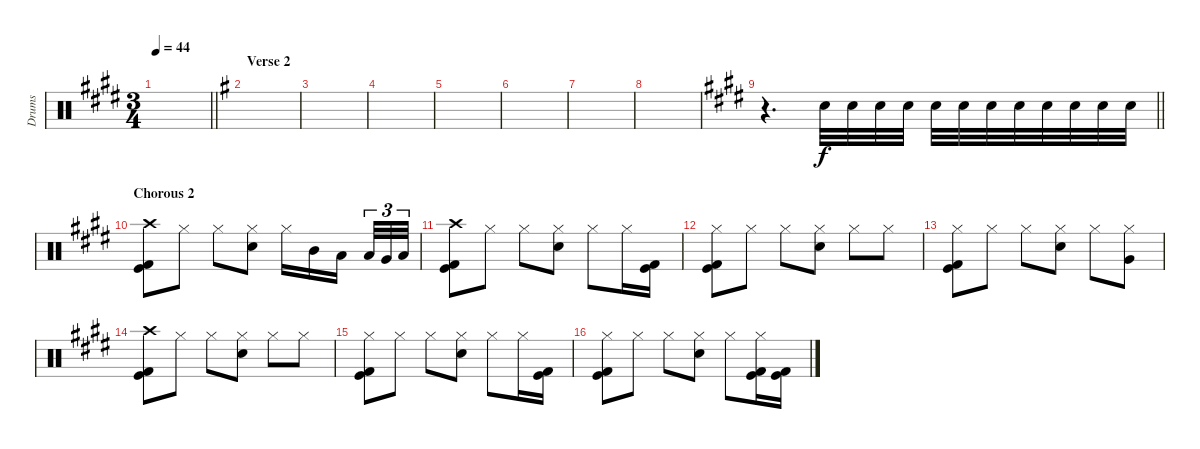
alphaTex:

\track ("Drums" "Drums") {instrument percussion}
\staff {score}
\articulation defaults
\ts (3 4)
\tempo 44
\clef neutral
\barLineRight lightlight
\ks e
|
\section ("" "Verse 2")
\ks g
|
|
|
|
|
|
|
\barLineRight lightlight
\ks c#minor
r.4{d volume 0} "Electric Snare (hit)".32{volume 16} "Electric Snare (hit)".32 "Electric Snare (hit)".32 "Electric Snare (hit)".32 "Electric Snare (hit)".32 "Electric Snare (hit)".32 "Electric Snare (hit)".32 "Electric Snare (hit)".32 "Electric Snare (hit)".32 "Electric Snare (hit)".32 "Electric Snare (hit)".32 "Electric Snare (hit)".32 |
\section ("" "Chorous 2")
("Crash high (hit)" "Kick (hit)" "Kick (hit) 2").8 "Hi-Hat (closed)".8 "Hi-Hat (closed)".8 ("Hi-Hat (closed)" "Electric Snare (hit)").8 "Hi-Hat (closed)".16 "Mid Tom (hit)".16 "Low Tom (hit)".16{beam splitsecondary} "Low Tom (hit)".32{tu (3 2)} "Very Low Tom (hit)".32{tu (3 2)} "Low Floor Tom (hit)".32{tu (3 2)} |
("Crash high (hit)" "Kick (hit)" "Kick (hit) 2").8 "Hi-Hat (closed)".8 "Hi-Hat (closed)".8 ("Hi-Hat (closed)" "Electric Snare (hit)").8 "Hi-Hat (closed)".8 "Hi-Hat (closed)".16 ("Kick (hit)" "Kick (hit) 2").16 |
("Hi-Hat (closed)" "Kick (hit)" "Kick (hit) 2").8 "Hi-Hat (closed)".8 "Hi-Hat (closed)".8 ("Hi-Hat (closed)" "Electric Snare (hit)").8 "Hi-Hat (closed)".8 "Hi-Hat (closed)".8 |
("Hi-Hat (closed)" "Kick (hit)" "Kick (hit) 2").8 "Hi-Hat (closed)".8 "Hi-Hat (closed)".8 ("Hi-Hat (closed)" "Electric Snare (hit)").8 "Hi-Hat (closed)".8 ("Hi-Hat (closed)" "Very Low Tom (hit)").8 |
("Crash high (hit)" "Kick (hit)" "Kick (hit) 2").8 "Hi-Hat (closed)".8 "Hi-Hat (closed)".8 ("Hi-Hat (closed)" "Electric Snare (hit)").8 "Hi-Hat (closed)".8 "Hi-Hat (closed)".8 |
("Hi-Hat (closed)" "Kick (hit)" "Kick (hit) 2").8 "Hi-Hat (closed)".8 "Hi-Hat (closed)".8 ("Hi-Hat (closed)" "Electric Snare (hit)").8 "Hi-Hat (closed)".8 "Hi-Hat (closed)".16 ("Kick (hit)" "Kick (hit) 2").16 |
("Hi-Hat (closed)" "Kick (hit)" "Kick (hit) 2").8 "Hi-Hat (closed)".8 "Hi-Hat (closed)".8 ("Hi-Hat (closed)" "Electric Snare (hit)").8 "Hi-Hat (closed)".8 ("Hi-Hat (closed)" "Kick (hit)" "Kick (hit) 2").16 ("Kick (hit)" "Kick (hit) 2").16
